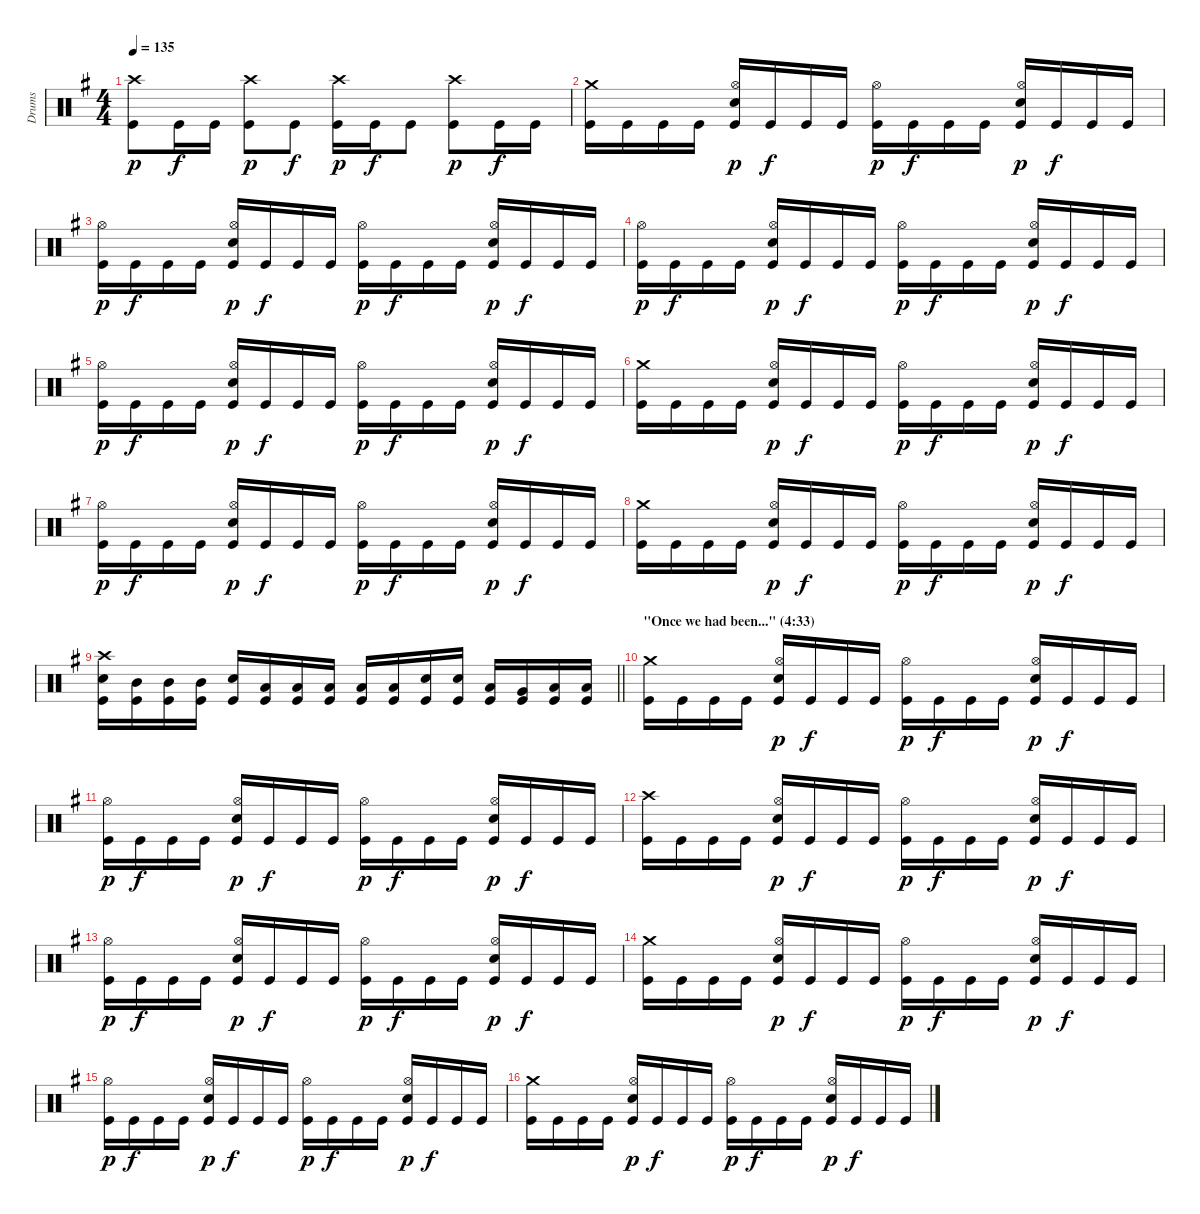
\track ("Drums" "Drums") {instrument percussion}
\staff {score}
\articulation defaults
\ts (4 4)
\tempo 135
\clef neutral
\ks eminor
("Crash high (hit)" "Kick (hit)").8{dy p} "Kick (hit)".16{dy f} "Kick (hit)".16 ("Crash high (hit)" "Kick (hit)").8{dy p} "Kick (hit)".8{dy f} ("Crash high (hit)" "Kick (hit)").16{dy p} "Kick (hit)".16{dy f} "Kick (hit)".8 ("Crash high (hit)" "Kick (hit)").8{dy p} "Kick (hit)".16{dy f} "Kick (hit)".16 |
("Crash medium (hit)" "Kick (hit)").16 "Kick (hit)".16 "Kick (hit)".16 "Kick (hit)".16 ("Hi-Hat (open)" "Snare (hit) 2" "Kick (hit)").16{dy p} "Kick (hit)".16{dy f} "Kick (hit)".16 "Kick (hit)".16 ("Hi-Hat (open)" "Kick (hit)").16{dy p} "Kick (hit)".16{dy f} "Kick (hit)".16 "Kick (hit)".16 ("Hi-Hat (open)" "Snare (hit) 2" "Kick (hit)").16{dy p} "Kick (hit)".16{dy f} "Kick (hit)".16 "Kick (hit)".16 |
("Hi-Hat (open)" "Kick (hit)").16{dy p} "Kick (hit)".16{dy f} "Kick (hit)".16 "Kick (hit)".16 ("Hi-Hat (open)" "Snare (hit) 2" "Kick (hit)").16{dy p} "Kick (hit)".16{dy f} "Kick (hit)".16 "Kick (hit)".16 ("Hi-Hat (open)" "Kick (hit)").16{dy p} "Kick (hit)".16{dy f} "Kick (hit)".16 "Kick (hit)".16 ("Hi-Hat (open)" "Snare (hit) 2" "Kick (hit)").16{dy p} "Kick (hit)".16{dy f} "Kick (hit)".16 "Kick (hit)".16 |
("Hi-Hat (open)" "Kick (hit)").16{dy p} "Kick (hit)".16{dy f} "Kick (hit)".16 "Kick (hit)".16 ("Hi-Hat (open)" "Snare (hit) 2" "Kick (hit)").16{dy p} "Kick (hit)".16{dy f} "Kick (hit)".16 "Kick (hit)".16 ("Hi-Hat (open)" "Kick (hit)").16{dy p} "Kick (hit)".16{dy f} "Kick (hit)".16 "Kick (hit)".16 ("Hi-Hat (open)" "Snare (hit) 2" "Kick (hit)").16{dy p} "Kick (hit)".16{dy f} "Kick (hit)".16 "Kick (hit)".16 |
("Hi-Hat (open)" "Kick (hit)").16{dy p} "Kick (hit)".16{dy f} "Kick (hit)".16 "Kick (hit)".16 ("Hi-Hat (open)" "Snare (hit) 2" "Kick (hit)").16{dy p} "Kick (hit)".16{dy f} "Kick (hit)".16 "Kick (hit)".16 ("Hi-Hat (open)" "Kick (hit)").16{dy p} "Kick (hit)".16{dy f} "Kick (hit)".16 "Kick (hit)".16 ("Hi-Hat (open)" "Snare (hit) 2" "Kick (hit)").16{dy p} "Kick (hit)".16{dy f} "Kick (hit)".16 "Kick (hit)".16 |
("Crash medium (hit)" "Kick (hit)").16 "Kick (hit)".16 "Kick (hit)".16 "Kick (hit)".16 ("Hi-Hat (open)" "Snare (hit) 2" "Kick (hit)").16{dy p} "Kick (hit)".16{dy f} "Kick (hit)".16 "Kick (hit)".16 ("Hi-Hat (open)" "Kick (hit)").16{dy p} "Kick (hit)".16{dy f} "Kick (hit)".16 "Kick (hit)".16 ("Hi-Hat (open)" "Snare (hit) 2" "Kick (hit)").16{dy p} "Kick (hit)".16{dy f} "Kick (hit)".16 "Kick (hit)".16 |
("Hi-Hat (open)" "Kick (hit)").16{dy p} "Kick (hit)".16{dy f} "Kick (hit)".16 "Kick (hit)".16 ("Hi-Hat (open)" "Snare (hit) 2" "Kick (hit)").16{dy p} "Kick (hit)".16{dy f} "Kick (hit)".16 "Kick (hit)".16 ("Hi-Hat (open)" "Kick (hit)").16{dy p} "Kick (hit)".16{dy f} "Kick (hit)".16 "Kick (hit)".16 ("Hi-Hat (open)" "Snare (hit) 2" "Kick (hit)").16{dy p} "Kick (hit)".16{dy f} "Kick (hit)".16 "Kick (hit)".16 |
("Crash medium (hit)" "Kick (hit)").16 "Kick (hit)".16 "Kick (hit)".16 "Kick (hit)".16 ("Hi-Hat (open)" "Snare (hit) 2" "Kick (hit)").16{dy p} "Kick (hit)".16{dy f} "Kick (hit)".16 "Kick (hit)".16 ("Hi-Hat (open)" "Kick (hit)").16{dy p} "Kick (hit)".16{dy f} "Kick (hit)".16 "Kick (hit)".16 ("Hi-Hat (open)" "Snare (hit) 2" "Kick (hit)").16{dy p} "Kick (hit)".16{dy f} "Kick (hit)".16 "Kick (hit)".16 |
\barLineRight lightlight
("Crash high (hit)" "Snare (hit) 2" "Kick (hit)").16 ("Mid Tom (hit)" "Kick (hit)").16 ("Mid Tom (hit)" "Kick (hit)").16 ("Mid Tom (hit)" "Kick (hit)").16 ("Snare (hit) 2" "Kick (hit)").16 ("Low Tom (hit)" "Kick (hit)").16 ("Low Tom (hit)" "Kick (hit)").16 ("Low Tom (hit)" "Kick (hit)").16 ("Low Floor Tom (hit)" "Kick (hit)").16 ("Low Floor Tom (hit)" "Kick (hit)").16 ("Snare (hit) 2" "Kick (hit)").16 ("Snare (hit) 2" "Kick (hit)").16 ("Low Tom (hit)" "Kick (hit)").16 ("Very Low Tom (hit)" "Kick (hit)").16 ("Low Floor Tom (hit)" "Kick (hit)").16 ("Low Floor Tom (hit)" "Kick (hit)").16 |
\section ("" "\"Once we had been...\" (4:33)")
("Crash medium (hit)" "Kick (hit)").16 "Kick (hit)".16 "Kick (hit)".16 "Kick (hit)".16 ("Hi-Hat (open)" "Snare (hit) 2" "Kick (hit)").16{dy p} "Kick (hit)".16{dy f} "Kick (hit)".16 "Kick (hit)".16 ("Hi-Hat (open)" "Kick (hit)").16{dy p} "Kick (hit)".16{dy f} "Kick (hit)".16 "Kick (hit)".16 ("Hi-Hat (open)" "Snare (hit) 2" "Kick (hit)").16{dy p} "Kick (hit)".16{dy f} "Kick (hit)".16 "Kick (hit)".16 |
("Hi-Hat (open)" "Kick (hit)").16{dy p} "Kick (hit)".16{dy f} "Kick (hit)".16 "Kick (hit)".16 ("Hi-Hat (open)" "Snare (hit) 2" "Kick (hit)").16{dy p} "Kick (hit)".16{dy f} "Kick (hit)".16 "Kick (hit)".16 ("Hi-Hat (open)" "Kick (hit)").16{dy p} "Kick (hit)".16{dy f} "Kick (hit)".16 "Kick (hit)".16 ("Hi-Hat (open)" "Snare (hit) 2" "Kick (hit)").16{dy p} "Kick (hit)".16{dy f} "Kick (hit)".16 "Kick (hit)".16 |
("Crash high (hit)" "Kick (hit)").16 "Kick (hit)".16 "Kick (hit)".16 "Kick (hit)".16 ("Hi-Hat (open)" "Snare (hit) 2" "Kick (hit)").16{dy p} "Kick (hit)".16{dy f} "Kick (hit)".16 "Kick (hit)".16 ("Hi-Hat (open)" "Kick (hit)").16{dy p} "Kick (hit)".16{dy f} "Kick (hit)".16 "Kick (hit)".16 ("Hi-Hat (open)" "Snare (hit) 2" "Kick (hit)").16{dy p} "Kick (hit)".16{dy f} "Kick (hit)".16 "Kick (hit)".16 |
("Hi-Hat (open)" "Kick (hit)").16{dy p} "Kick (hit)".16{dy f} "Kick (hit)".16 "Kick (hit)".16 ("Hi-Hat (open)" "Snare (hit) 2" "Kick (hit)").16{dy p} "Kick (hit)".16{dy f} "Kick (hit)".16 "Kick (hit)".16 ("Hi-Hat (open)" "Kick (hit)").16{dy p} "Kick (hit)".16{dy f} "Kick (hit)".16 "Kick (hit)".16 ("Hi-Hat (open)" "Snare (hit) 2" "Kick (hit)").16{dy p} "Kick (hit)".16{dy f} "Kick (hit)".16 "Kick (hit)".16 |
("Crash medium (hit)" "Kick (hit)").16 "Kick (hit)".16 "Kick (hit)".16 "Kick (hit)".16 ("Hi-Hat (open)" "Snare (hit) 2" "Kick (hit)").16{dy p} "Kick (hit)".16{dy f} "Kick (hit)".16 "Kick (hit)".16 ("Hi-Hat (open)" "Kick (hit)").16{dy p} "Kick (hit)".16{dy f} "Kick (hit)".16 "Kick (hit)".16 ("Hi-Hat (open)" "Snare (hit) 2" "Kick (hit)").16{dy p} "Kick (hit)".16{dy f} "Kick (hit)".16 "Kick (hit)".16 |
("Hi-Hat (open)" "Kick (hit)").16{dy p} "Kick (hit)".16{dy f} "Kick (hit)".16 "Kick (hit)".16 ("Hi-Hat (open)" "Snare (hit) 2" "Kick (hit)").16{dy p} "Kick (hit)".16{dy f} "Kick (hit)".16 "Kick (hit)".16 ("Hi-Hat (open)" "Kick (hit)").16{dy p} "Kick (hit)".16{dy f} "Kick (hit)".16 "Kick (hit)".16 ("Hi-Hat (open)" "Snare (hit) 2" "Kick (hit)").16{dy p} "Kick (hit)".16{dy f} "Kick (hit)".16 "Kick (hit)".16 |
("Crash medium (hit)" "Kick (hit)").16 "Kick (hit)".16 "Kick (hit)".16 "Kick (hit)".16 ("Hi-Hat (open)" "Snare (hit) 2" "Kick (hit)").16{dy p} "Kick (hit)".16{dy f} "Kick (hit)".16 "Kick (hit)".16 ("Hi-Hat (open)" "Kick (hit)").16{dy p} "Kick (hit)".16{dy f} "Kick (hit)".16 "Kick (hit)".16 ("Hi-Hat (open)" "Snare (hit) 2" "Kick (hit)").16{dy p} "Kick (hit)".16{dy f} "Kick (hit)".16 "Kick (hit)".16
